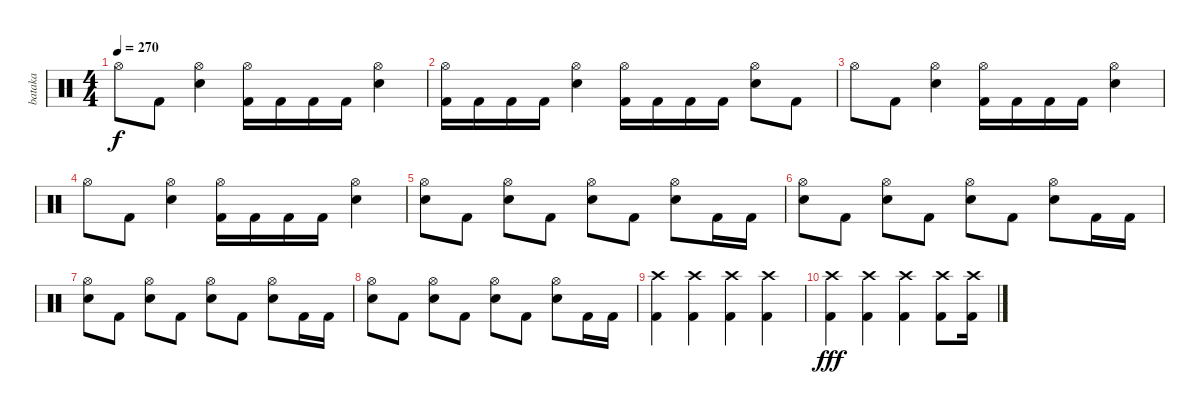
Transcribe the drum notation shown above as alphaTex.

\track ("bataka" "bataka") {instrument percussion}
\staff {score}
\articulation defaults
\ts (4 4)
\tempo 270
\clef neutral
\ks c "Hi-Hat (open)".8{dy f} "Kick (hit) 2".8
("Hi-Hat (open)" "Electric Snare (hit)").4 ("Hi-Hat (open)" "Kick (hit) 2").16 "Kick (hit) 2".16 "Kick (hit) 2".16 "Kick (hit) 2".16 ("Hi-Hat (open)" "Electric Snare (hit)").4 |
("Hi-Hat (open)" "Kick (hit) 2").16 "Kick (hit) 2".16 "Kick (hit) 2".16 "Kick (hit) 2".16 ("Hi-Hat (open)" "Electric Snare (hit)").4 ("Hi-Hat (open)" "Kick (hit) 2").16 "Kick (hit) 2".16 "Kick (hit) 2".16 "Kick (hit) 2".16 ("Hi-Hat (open)" "Electric Snare (hit)").8 "Kick (hit) 2".8 |
"Hi-Hat (open)".8 "Kick (hit) 2".8 ("Hi-Hat (open)" "Electric Snare (hit)").4 ("Hi-Hat (open)" "Kick (hit) 2").16 "Kick (hit) 2".16 "Kick (hit) 2".16 "Kick (hit) 2".16 ("Hi-Hat (open)" "Electric Snare (hit)").4 |
"Hi-Hat (open)".8 "Kick (hit) 2".8 ("Hi-Hat (open)" "Electric Snare (hit)").4 ("Hi-Hat (open)" "Kick (hit) 2").16 "Kick (hit) 2".16 "Kick (hit) 2".16 "Kick (hit) 2".16 ("Hi-Hat (open)" "Electric Snare (hit)").4 |
("Hi-Hat (open)" "Electric Snare (hit)").8 "Kick (hit) 2".8 ("Hi-Hat (open)" "Electric Snare (hit)").8 "Kick (hit) 2".8 ("Hi-Hat (open)" "Electric Snare (hit)").8 "Kick (hit) 2".8 ("Hi-Hat (open)" "Electric Snare (hit)").8 "Kick (hit) 2".16 "Kick (hit) 2".16 |
("Hi-Hat (open)" "Electric Snare (hit)").8 "Kick (hit) 2".8 ("Hi-Hat (open)" "Electric Snare (hit)").8 "Kick (hit) 2".8 ("Hi-Hat (open)" "Electric Snare (hit)").8 "Kick (hit) 2".8 ("Hi-Hat (open)" "Electric Snare (hit)").8 "Kick (hit) 2".16 "Kick (hit) 2".16 |
("Hi-Hat (open)" "Electric Snare (hit)").8 "Kick (hit) 2".8 ("Hi-Hat (open)" "Electric Snare (hit)").8 "Kick (hit) 2".8 ("Hi-Hat (open)" "Electric Snare (hit)").8 "Kick (hit) 2".8 ("Hi-Hat (open)" "Electric Snare (hit)").8 "Kick (hit) 2".16 "Kick (hit) 2".16 |
("Hi-Hat (open)" "Electric Snare (hit)").8 "Kick (hit) 2".8 ("Hi-Hat (open)" "Electric Snare (hit)").8 "Kick (hit) 2".8 ("Hi-Hat (open)" "Electric Snare (hit)").8 "Kick (hit) 2".8 ("Hi-Hat (open)" "Electric Snare (hit)").8 "Kick (hit) 2".16 "Kick (hit) 2".16 |
("Crash high (hit)" "Kick (hit) 2").4 ("Crash high (hit)" "Kick (hit) 2").4 ("Crash high (hit)" "Kick (hit) 2").4 ("Crash high (hit)" "Kick (hit) 2").4 |
("Crash high (hit)" "Kick (hit) 2").4{dy fff} ("Crash high (hit)" "Kick (hit) 2").4 ("Crash high (hit)" "Kick (hit) 2").4 ("Crash high (hit)" "Kick (hit) 2").8 ("Crash high (hit)" "Kick (hit) 2").16
